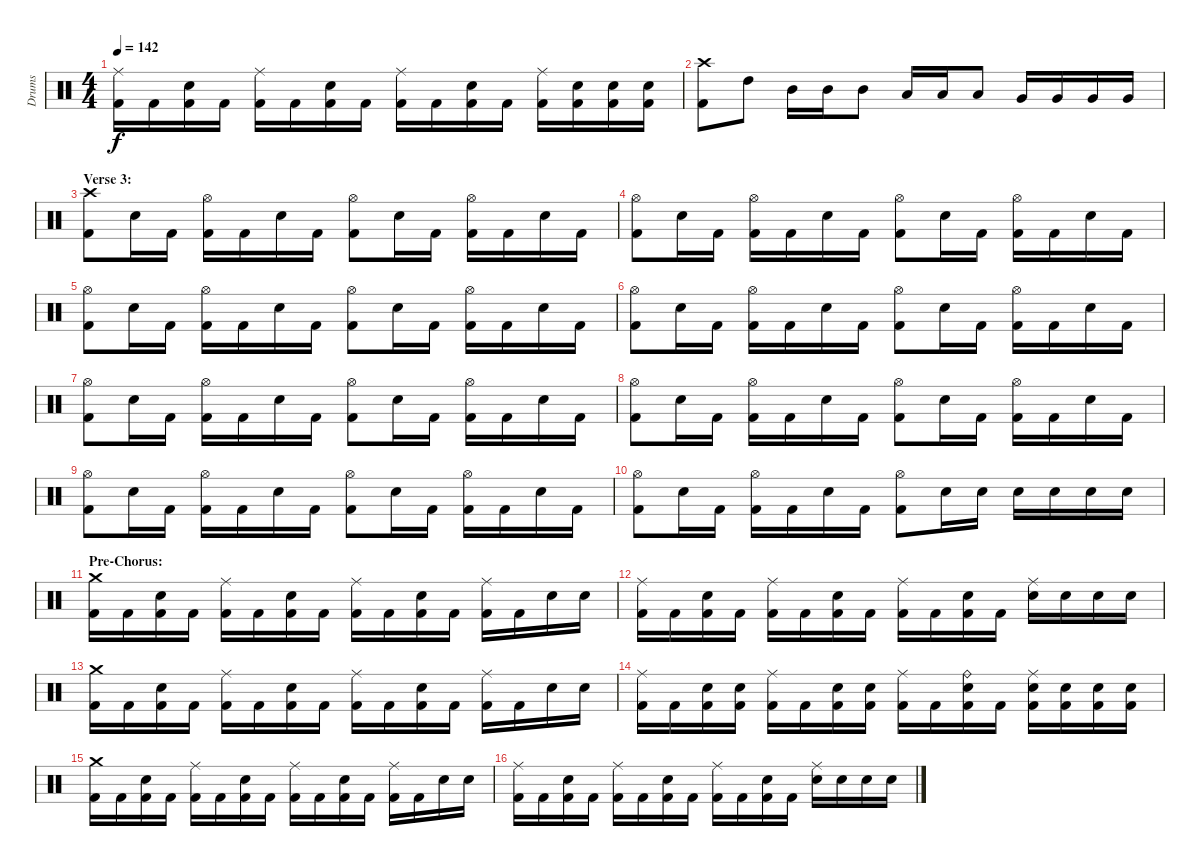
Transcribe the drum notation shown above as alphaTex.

\track ("Drums" "Drums") {instrument percussion}
\staff {score}
\articulation defaults
\ts (4 4)
\tempo 142
\clef neutral
\ks c
("Ride (middle)" "Kick (hit) 2").16{dy f} "Kick (hit) 2".16 ("Electric Snare (hit)" "Kick (hit) 2").16 "Kick (hit) 2".16 ("Ride (middle)" "Kick (hit) 2").16 "Kick (hit) 2".16 ("Electric Snare (hit)" "Kick (hit) 2").16 "Kick (hit) 2".16 ("Ride (middle)" "Kick (hit) 2").16 "Kick (hit) 2".16 ("Electric Snare (hit)" "Kick (hit) 2").16 "Kick (hit) 2".16 ("Ride (middle)" "Kick (hit) 2").16 ("Electric Snare (hit)" "Kick (hit) 2").16 ("Electric Snare (hit)" "Kick (hit) 2").16 ("Electric Snare (hit)" "Kick (hit) 2").16 |
("Crash high (hit)" "Kick (hit) 2").8 "High Tom (hit)".8 "Mid Tom (hit)".16 "Mid Tom (hit)".16 "Mid Tom (hit)".8 "Low Tom (hit)".16 "Low Tom (hit)".16 "Low Tom (hit)".8 "Very Low Tom (hit)".16 "Very Low Tom (hit)".16 "Very Low Tom (hit)".16 "Very Low Tom (hit)".16 |
\section ("" "Verse 3:")
("Crash high (hit)" "Kick (hit) 2").8 "Electric Snare (hit)".16 "Kick (hit) 2".16 ("Hi-Hat (open)" "Kick (hit) 2").16 "Kick (hit) 2".16 "Electric Snare (hit)".16 "Kick (hit) 2".16 ("Hi-Hat (open)" "Kick (hit) 2").8 "Electric Snare (hit)".16 "Kick (hit) 2".16 ("Hi-Hat (open)" "Kick (hit) 2").16 "Kick (hit) 2".16 "Electric Snare (hit)".16 "Kick (hit) 2".16 |
("Hi-Hat (open)" "Kick (hit) 2").8 "Electric Snare (hit)".16 "Kick (hit) 2".16 ("Hi-Hat (open)" "Kick (hit) 2").16 "Kick (hit) 2".16 "Electric Snare (hit)".16 "Kick (hit) 2".16 ("Hi-Hat (open)" "Kick (hit) 2").8 "Electric Snare (hit)".16 "Kick (hit) 2".16 ("Hi-Hat (open)" "Kick (hit) 2").16 "Kick (hit) 2".16 "Electric Snare (hit)".16 "Kick (hit) 2".16 |
("Hi-Hat (open)" "Kick (hit) 2").8 "Electric Snare (hit)".16 "Kick (hit) 2".16 ("Hi-Hat (open)" "Kick (hit) 2").16 "Kick (hit) 2".16 "Electric Snare (hit)".16 "Kick (hit) 2".16 ("Hi-Hat (open)" "Kick (hit) 2").8 "Electric Snare (hit)".16 "Kick (hit) 2".16 ("Hi-Hat (open)" "Kick (hit) 2").16 "Kick (hit) 2".16 "Electric Snare (hit)".16 "Kick (hit) 2".16 |
("Hi-Hat (open)" "Kick (hit) 2").8 "Electric Snare (hit)".16 "Kick (hit) 2".16 ("Hi-Hat (open)" "Kick (hit) 2").16 "Kick (hit) 2".16 "Electric Snare (hit)".16 "Kick (hit) 2".16 ("Hi-Hat (open)" "Kick (hit) 2").8 "Electric Snare (hit)".16 "Kick (hit) 2".16 ("Hi-Hat (open)" "Kick (hit) 2").16 "Kick (hit) 2".16 "Electric Snare (hit)".16 "Kick (hit) 2".16 |
("Hi-Hat (open)" "Kick (hit) 2").8 "Electric Snare (hit)".16 "Kick (hit) 2".16 ("Hi-Hat (open)" "Kick (hit) 2").16 "Kick (hit) 2".16 "Electric Snare (hit)".16 "Kick (hit) 2".16 ("Hi-Hat (open)" "Kick (hit) 2").8 "Electric Snare (hit)".16 "Kick (hit) 2".16 ("Hi-Hat (open)" "Kick (hit) 2").16 "Kick (hit) 2".16 "Electric Snare (hit)".16 "Kick (hit) 2".16 |
("Hi-Hat (open)" "Kick (hit) 2").8 "Electric Snare (hit)".16 "Kick (hit) 2".16 ("Hi-Hat (open)" "Kick (hit) 2").16 "Kick (hit) 2".16 "Electric Snare (hit)".16 "Kick (hit) 2".16 ("Hi-Hat (open)" "Kick (hit) 2").8 "Electric Snare (hit)".16 "Kick (hit) 2".16 ("Hi-Hat (open)" "Kick (hit) 2").16 "Kick (hit) 2".16 "Electric Snare (hit)".16 "Kick (hit) 2".16 |
("Hi-Hat (open)" "Kick (hit) 2").8 "Electric Snare (hit)".16 "Kick (hit) 2".16 ("Hi-Hat (open)" "Kick (hit) 2").16 "Kick (hit) 2".16 "Electric Snare (hit)".16 "Kick (hit) 2".16 ("Hi-Hat (open)" "Kick (hit) 2").8 "Electric Snare (hit)".16 "Kick (hit) 2".16 ("Hi-Hat (open)" "Kick (hit) 2").16 "Kick (hit) 2".16 "Electric Snare (hit)".16 "Kick (hit) 2".16 |
("Hi-Hat (open)" "Kick (hit) 2").8 "Electric Snare (hit)".16 "Kick (hit) 2".16 ("Hi-Hat (open)" "Kick (hit) 2").16 "Kick (hit) 2".16 "Electric Snare (hit)".16 "Kick (hit) 2".16 ("Hi-Hat (open)" "Kick (hit) 2").8 "Electric Snare (hit)".16 "Electric Snare (hit)".16 "Electric Snare (hit)".16 "Electric Snare (hit)".16 "Electric Snare (hit)".16 "Electric Snare (hit)".16 |
\section ("" "Pre-Chorus:")
("Crash medium (hit)" "Kick (hit) 2").16 "Kick (hit) 2".16 ("Electric Snare (hit)" "Kick (hit) 2").16 "Kick (hit) 2".16 ("Ride (middle)" "Kick (hit) 2").16 "Kick (hit) 2".16 ("Electric Snare (hit)" "Kick (hit) 2").16 "Kick (hit) 2".16 ("Ride (middle)" "Kick (hit) 2").16 "Kick (hit) 2".16 ("Electric Snare (hit)" "Kick (hit) 2").16 "Kick (hit) 2".16 ("Ride (middle)" "Kick (hit) 2").16 "Kick (hit) 2".16 "Electric Snare (hit)".16 "Electric Snare (hit)".16 |
("Ride (middle)" "Kick (hit) 2").16 "Kick (hit) 2".16 ("Electric Snare (hit)" "Kick (hit) 2").16 "Kick (hit) 2".16 ("Ride (middle)" "Kick (hit) 2").16 "Kick (hit) 2".16 ("Electric Snare (hit)" "Kick (hit) 2").16 "Kick (hit) 2".16 ("Ride (middle)" "Kick (hit) 2").16 "Kick (hit) 2".16 ("Electric Snare (hit)" "Kick (hit) 2").16 "Kick (hit) 2".16 ("Ride (middle)" "Electric Snare (hit)").16 "Electric Snare (hit)".16 "Electric Snare (hit)".16 "Electric Snare (hit)".16 |
("Crash medium (hit)" "Kick (hit) 2").16 "Kick (hit) 2".16 ("Electric Snare (hit)" "Kick (hit) 2").16 "Kick (hit) 2".16 ("Ride (middle)" "Kick (hit) 2").16 "Kick (hit) 2".16 ("Electric Snare (hit)" "Kick (hit) 2").16 "Kick (hit) 2".16 ("Ride (middle)" "Kick (hit) 2").16 "Kick (hit) 2".16 ("Electric Snare (hit)" "Kick (hit) 2").16 "Kick (hit) 2".16 ("Ride (middle)" "Kick (hit) 2").16 "Kick (hit) 2".16 "Electric Snare (hit)".16 "Electric Snare (hit)".16 |
("Ride (middle)" "Kick (hit) 2").16 "Kick (hit) 2".16 ("Electric Snare (hit)" "Kick (hit) 2").16 ("Electric Snare (hit)" "Kick (hit) 2").16 ("Ride (middle)" "Kick (hit) 2").16 "Kick (hit) 2".16 ("Electric Snare (hit)" "Kick (hit) 2").16 ("Electric Snare (hit)" "Kick (hit) 2").16 ("Ride (middle)" "Kick (hit) 2").16 "Kick (hit) 2".16 ("Ride (bell)" "Electric Snare (hit)" "Kick (hit) 2").16 "Kick (hit) 2".16 ("Ride (middle)" "Electric Snare (hit)" "Kick (hit) 2").16 ("Electric Snare (hit)" "Kick (hit) 2").16 ("Electric Snare (hit)" "Kick (hit) 2").16 ("Electric Snare (hit)" "Kick (hit) 2").16 |
("Crash medium (hit)" "Kick (hit) 2").16 "Kick (hit) 2".16 ("Electric Snare (hit)" "Kick (hit) 2").16 "Kick (hit) 2".16 ("Ride (middle)" "Kick (hit) 2").16 "Kick (hit) 2".16 ("Electric Snare (hit)" "Kick (hit) 2").16 "Kick (hit) 2".16 ("Ride (middle)" "Kick (hit) 2").16 "Kick (hit) 2".16 ("Electric Snare (hit)" "Kick (hit) 2").16 "Kick (hit) 2".16 ("Ride (middle)" "Kick (hit) 2").16 "Kick (hit) 2".16 "Electric Snare (hit)".16 "Electric Snare (hit)".16 |
("Ride (middle)" "Kick (hit) 2").16 "Kick (hit) 2".16 ("Electric Snare (hit)" "Kick (hit) 2").16 "Kick (hit) 2".16 ("Ride (middle)" "Kick (hit) 2").16 "Kick (hit) 2".16 ("Electric Snare (hit)" "Kick (hit) 2").16 "Kick (hit) 2".16 ("Ride (middle)" "Kick (hit) 2").16 "Kick (hit) 2".16 ("Electric Snare (hit)" "Kick (hit) 2").16 "Kick (hit) 2".16 ("Ride (middle)" "Electric Snare (hit)").16 "Electric Snare (hit)".16 "Electric Snare (hit)".16 "Electric Snare (hit)".16
